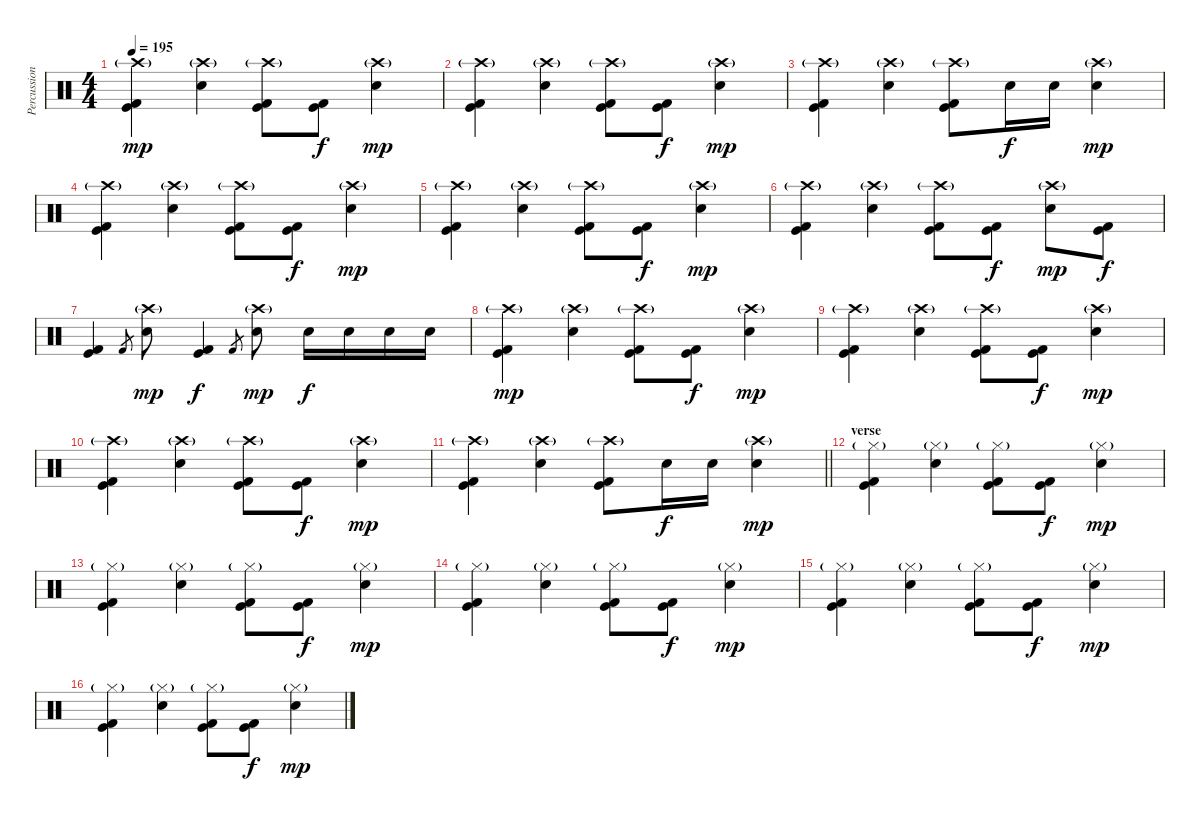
\track ("Percussion" "Percussion") {instrument percussion}
\staff {score}
\articulation defaults
\ts (4 4)
\tempo 195
\clef neutral
\ks c
("Crash high (hit)"{g} "Kick (hit) 2" "Kick (hit)").4{dy mp} ("Crash high (hit)"{g} "Electric Snare (hit)").4 ("Crash high (hit)"{g} "Kick (hit) 2" "Kick (hit)").8 ("Kick (hit) 2" "Kick (hit)").8{dy f} ("Crash high (hit)"{g} "Electric Snare (hit)").4{dy mp} |
("Crash high (hit)"{g} "Kick (hit) 2" "Kick (hit)").4 ("Crash high (hit)"{g} "Electric Snare (hit)").4 ("Crash high (hit)"{g} "Kick (hit) 2" "Kick (hit)").8 ("Kick (hit) 2" "Kick (hit)").8{dy f} ("Crash high (hit)"{g} "Electric Snare (hit)").4{dy mp} |
("Crash high (hit)"{g} "Kick (hit) 2" "Kick (hit)").4 ("Crash high (hit)"{g} "Electric Snare (hit)").4 ("Crash high (hit)"{g} "Kick (hit) 2" "Kick (hit)").8 "Electric Snare (hit)".16{dy f} "Electric Snare (hit)".16 ("Crash high (hit)"{g} "Electric Snare (hit)").4{dy mp} |
("Crash high (hit)"{g} "Kick (hit) 2" "Kick (hit)").4 ("Crash high (hit)"{g} "Electric Snare (hit)").4 ("Crash high (hit)"{g} "Kick (hit) 2" "Kick (hit)").8 ("Kick (hit) 2" "Kick (hit)").8{dy f} ("Crash high (hit)"{g} "Electric Snare (hit)").4{dy mp} |
("Crash high (hit)"{g} "Kick (hit) 2" "Kick (hit)").4 ("Crash high (hit)"{g} "Electric Snare (hit)").4 ("Crash high (hit)"{g} "Kick (hit) 2" "Kick (hit)").8 ("Kick (hit) 2" "Kick (hit)").8{dy f} ("Crash high (hit)"{g} "Electric Snare (hit)").4{dy mp} |
("Crash high (hit)"{g} "Kick (hit) 2" "Kick (hit)").4 ("Crash high (hit)"{g} "Electric Snare (hit)").4 ("Crash high (hit)"{g} "Kick (hit) 2" "Kick (hit)").8 ("Kick (hit) 2" "Kick (hit)").8{dy f} ("Crash high (hit)"{g} "Electric Snare (hit)").8{dy mp} ("Kick (hit)" "Kick (hit) 2").8{dy f} |
("Kick (hit)" "Kick (hit) 2").4 "Kick (hit) 2".8{gr} ("Crash high (hit)"{g} "Snare (hit) 2").8{dy mp} ("Kick (hit)" "Kick (hit) 2").4{dy f} "Kick (hit) 2".8{gr} ("Crash high (hit)"{g} "Snare (hit) 2").8{dy mp} "Snare (hit) 2".16{dy f} "Snare (hit) 2".16 "Snare (hit) 2".16 "Snare (hit) 2".16 |
("Crash high (hit)"{g} "Kick (hit) 2" "Kick (hit)").4{dy mp} ("Crash high (hit)"{g} "Electric Snare (hit)").4 ("Crash high (hit)"{g} "Kick (hit) 2" "Kick (hit)").8 ("Kick (hit) 2" "Kick (hit)").8{dy f} ("Crash high (hit)"{g} "Electric Snare (hit)").4{dy mp} |
("Crash high (hit)"{g} "Kick (hit) 2" "Kick (hit)").4 ("Crash high (hit)"{g} "Electric Snare (hit)").4 ("Crash high (hit)"{g} "Kick (hit) 2" "Kick (hit)").8 ("Kick (hit) 2" "Kick (hit)").8{dy f} ("Crash high (hit)"{g} "Electric Snare (hit)").4{dy mp} |
("Crash high (hit)"{g} "Kick (hit) 2" "Kick (hit)").4 ("Crash high (hit)"{g} "Electric Snare (hit)").4 ("Crash high (hit)"{g} "Kick (hit) 2" "Kick (hit)").8 ("Kick (hit) 2" "Kick (hit)").8{dy f} ("Crash high (hit)"{g} "Electric Snare (hit)").4{dy mp} |
\barLineRight lightlight
("Crash high (hit)"{g} "Kick (hit) 2" "Kick (hit)").4 ("Crash high (hit)"{g} "Electric Snare (hit)").4 ("Crash high (hit)"{g} "Kick (hit) 2" "Kick (hit)").8 "Electric Snare (hit)".16{dy f} "Electric Snare (hit)".16 ("Crash high (hit)"{g} "Electric Snare (hit)").4{dy mp} |
\section ("" "verse")
("Hi-Hat (closed)"{g} "Kick (hit) 2" "Kick (hit)").4 ("Hi-Hat (closed)"{g} "Snare (hit) 2").4 ("Hi-Hat (closed)"{g} "Kick (hit) 2" "Kick (hit)").8 ("Kick (hit) 2" "Kick (hit)").8{dy f} ("Hi-Hat (closed)"{g} "Snare (hit) 2").4{dy mp} |
("Hi-Hat (closed)"{g} "Kick (hit) 2" "Kick (hit)").4 ("Hi-Hat (closed)"{g} "Snare (hit) 2").4 ("Hi-Hat (closed)"{g} "Kick (hit) 2" "Kick (hit)").8 ("Kick (hit) 2" "Kick (hit)").8{dy f} ("Hi-Hat (closed)"{g} "Snare (hit) 2").4{dy mp} |
("Hi-Hat (closed)"{g} "Kick (hit) 2" "Kick (hit)").4 ("Hi-Hat (closed)"{g} "Snare (hit) 2").4 ("Hi-Hat (closed)"{g} "Kick (hit) 2" "Kick (hit)").8 ("Kick (hit) 2" "Kick (hit)").8{dy f} ("Hi-Hat (closed)"{g} "Snare (hit) 2").4{dy mp} |
("Hi-Hat (closed)"{g} "Kick (hit) 2" "Kick (hit)").4 ("Hi-Hat (closed)"{g} "Snare (hit) 2").4 ("Hi-Hat (closed)"{g} "Kick (hit) 2" "Kick (hit)").8 ("Kick (hit) 2" "Kick (hit)").8{dy f} ("Hi-Hat (closed)"{g} "Snare (hit) 2").4{dy mp} |
("Hi-Hat (closed)"{g} "Kick (hit) 2" "Kick (hit)").4 ("Hi-Hat (closed)"{g} "Snare (hit) 2").4 ("Hi-Hat (closed)"{g} "Kick (hit) 2" "Kick (hit)").8 ("Kick (hit) 2" "Kick (hit)").8{dy f} ("Hi-Hat (closed)"{g} "Snare (hit) 2").4{dy mp}
